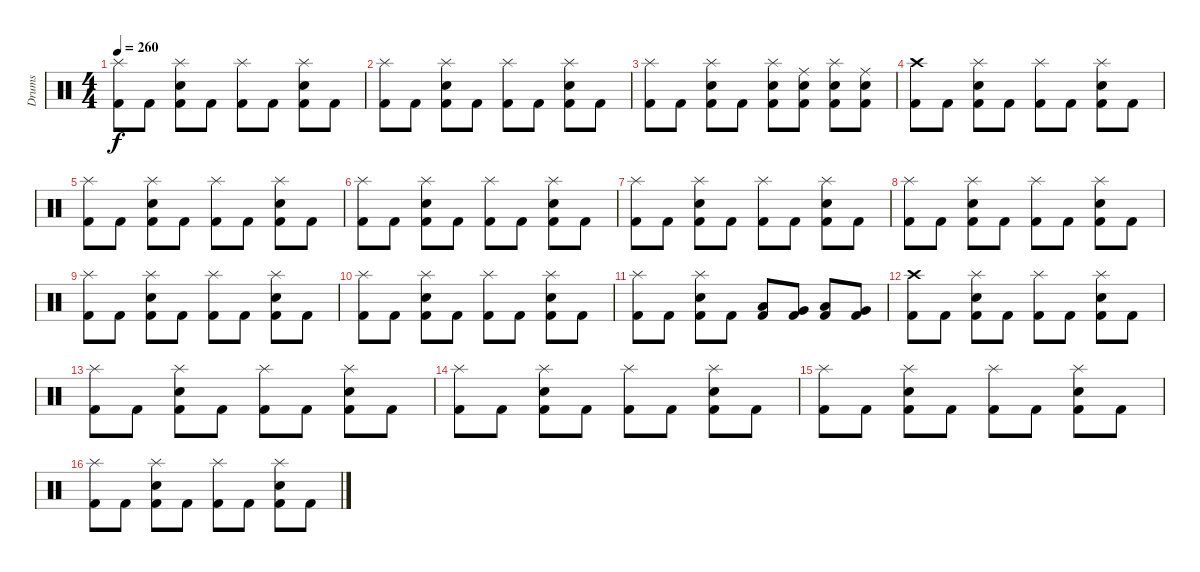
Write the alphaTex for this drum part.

\track ("Drums" "Drums") {instrument percussion}
\staff {score}
\articulation defaults
\ts (4 4)
\tempo 260
\clef neutral
\ks c
("Splash (hit)" "Kick (hit) 2").8{dy f} "Kick (hit) 2".8 ("Splash (hit)" "Electric Snare (hit)" "Kick (hit) 2").8 "Kick (hit) 2".8 ("Splash (hit)" "Kick (hit) 2").8 "Kick (hit) 2".8 ("Splash (hit)" "Electric Snare (hit)" "Kick (hit) 2").8 "Kick (hit) 2".8 |
("Splash (hit)" "Kick (hit) 2").8 "Kick (hit) 2".8 ("Splash (hit)" "Electric Snare (hit)" "Kick (hit) 2").8 "Kick (hit) 2".8 ("Splash (hit)" "Kick (hit) 2").8 "Kick (hit) 2".8 ("Splash (hit)" "Electric Snare (hit)" "Kick (hit) 2").8 "Kick (hit) 2".8 |
("Splash (hit)" "Kick (hit) 2").8 "Kick (hit) 2".8 ("Splash (hit)" "Electric Snare (hit)" "Kick (hit) 2").8 "Kick (hit) 2".8 ("Splash (hit)" "Electric Snare (hit)" "Kick (hit) 2").8 ("Ride (middle)" "Electric Snare (hit)" "Kick (hit) 2").8 ("Splash (hit)" "Electric Snare (hit)" "Kick (hit) 2").8 ("Ride (middle)" "Electric Snare (hit)" "Kick (hit) 2").8 |
("Crash high (hit)" "Kick (hit) 2").8 "Kick (hit) 2".8 ("Splash (hit)" "Electric Snare (hit)" "Kick (hit) 2").8 "Kick (hit) 2".8 ("Splash (hit)" "Kick (hit) 2").8 "Kick (hit) 2".8 ("Splash (hit)" "Electric Snare (hit)" "Kick (hit) 2").8 "Kick (hit) 2".8 |
("Splash (hit)" "Kick (hit) 2").8 "Kick (hit) 2".8 ("Splash (hit)" "Electric Snare (hit)" "Kick (hit) 2").8 "Kick (hit) 2".8 ("Splash (hit)" "Kick (hit) 2").8 "Kick (hit) 2".8 ("Splash (hit)" "Electric Snare (hit)" "Kick (hit) 2").8 "Kick (hit) 2".8 |
("Splash (hit)" "Kick (hit) 2").8 "Kick (hit) 2".8 ("Splash (hit)" "Electric Snare (hit)" "Kick (hit) 2").8 "Kick (hit) 2".8 ("Splash (hit)" "Kick (hit) 2").8 "Kick (hit) 2".8 ("Splash (hit)" "Electric Snare (hit)" "Kick (hit) 2").8 "Kick (hit) 2".8 |
("Splash (hit)" "Kick (hit) 2").8 "Kick (hit) 2".8 ("Splash (hit)" "Electric Snare (hit)" "Kick (hit) 2").8 "Kick (hit) 2".8 ("Splash (hit)" "Kick (hit) 2").8 "Kick (hit) 2".8 ("Splash (hit)" "Electric Snare (hit)" "Kick (hit) 2").8 "Kick (hit) 2".8 |
("Splash (hit)" "Kick (hit) 2").8 "Kick (hit) 2".8 ("Splash (hit)" "Electric Snare (hit)" "Kick (hit) 2").8 "Kick (hit) 2".8 ("Splash (hit)" "Kick (hit) 2").8 "Kick (hit) 2".8 ("Splash (hit)" "Electric Snare (hit)" "Kick (hit) 2").8 "Kick (hit) 2".8 |
("Splash (hit)" "Kick (hit) 2").8 "Kick (hit) 2".8 ("Splash (hit)" "Electric Snare (hit)" "Kick (hit) 2").8 "Kick (hit) 2".8 ("Splash (hit)" "Kick (hit) 2").8 "Kick (hit) 2".8 ("Splash (hit)" "Electric Snare (hit)" "Kick (hit) 2").8 "Kick (hit) 2".8 |
("Splash (hit)" "Kick (hit) 2").8 "Kick (hit) 2".8 ("Splash (hit)" "Electric Snare (hit)" "Kick (hit) 2").8 "Kick (hit) 2".8 ("Splash (hit)" "Kick (hit) 2").8 "Kick (hit) 2".8 ("Splash (hit)" "Electric Snare (hit)" "Kick (hit) 2").8 "Kick (hit) 2".8 |
("Splash (hit)" "Kick (hit) 2").8 "Kick (hit) 2".8 ("Splash (hit)" "Electric Snare (hit)" "Kick (hit) 2").8 "Kick (hit) 2".8 ("Low Floor Tom (hit)" "Kick (hit) 2").8 ("Very Low Tom (hit)" "Kick (hit) 2").8 ("Low Floor Tom (hit)" "Kick (hit) 2").8 ("Very Low Tom (hit)" "Kick (hit) 2").8 |
("Crash high (hit)" "Kick (hit) 2").8 "Kick (hit) 2".8 ("Splash (hit)" "Electric Snare (hit)" "Kick (hit) 2").8 "Kick (hit) 2".8 ("Splash (hit)" "Kick (hit) 2").8 "Kick (hit) 2".8 ("Splash (hit)" "Electric Snare (hit)" "Kick (hit) 2").8 "Kick (hit) 2".8 |
("Splash (hit)" "Kick (hit) 2").8 "Kick (hit) 2".8 ("Splash (hit)" "Electric Snare (hit)" "Kick (hit) 2").8 "Kick (hit) 2".8 ("Splash (hit)" "Kick (hit) 2").8 "Kick (hit) 2".8 ("Splash (hit)" "Electric Snare (hit)" "Kick (hit) 2").8 "Kick (hit) 2".8 |
("Splash (hit)" "Kick (hit) 2").8 "Kick (hit) 2".8 ("Splash (hit)" "Electric Snare (hit)" "Kick (hit) 2").8 "Kick (hit) 2".8 ("Splash (hit)" "Kick (hit) 2").8 "Kick (hit) 2".8 ("Splash (hit)" "Electric Snare (hit)" "Kick (hit) 2").8 "Kick (hit) 2".8 |
("Splash (hit)" "Kick (hit) 2").8 "Kick (hit) 2".8 ("Splash (hit)" "Electric Snare (hit)" "Kick (hit) 2").8 "Kick (hit) 2".8 ("Splash (hit)" "Kick (hit) 2").8 "Kick (hit) 2".8 ("Splash (hit)" "Electric Snare (hit)" "Kick (hit) 2").8 "Kick (hit) 2".8 |
("Splash (hit)" "Kick (hit) 2").8 "Kick (hit) 2".8 ("Splash (hit)" "Electric Snare (hit)" "Kick (hit) 2").8 "Kick (hit) 2".8 ("Splash (hit)" "Kick (hit) 2").8 "Kick (hit) 2".8 ("Splash (hit)" "Electric Snare (hit)" "Kick (hit) 2").8 "Kick (hit) 2".8
